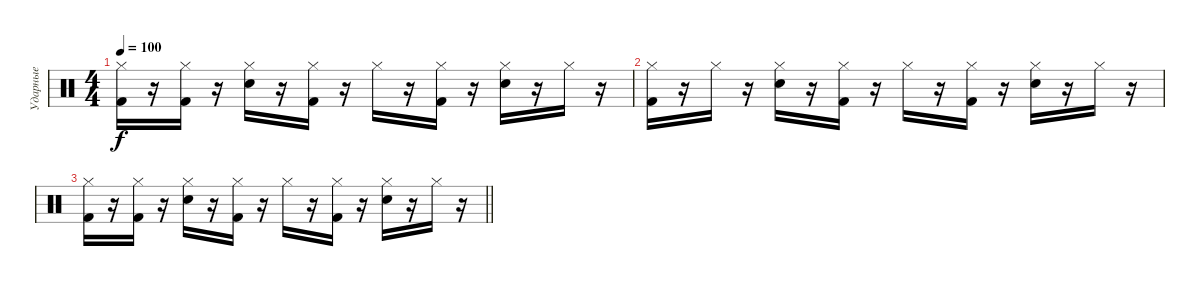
\track ("Ударные" "Ударные") {instrument percussion}
\staff {score}
\articulation defaults
\ts (4 4)
\tempo 100
\clef neutral
\ks c
("Hi-Hat (closed)" "Kick (hit) 2").16{dy f} r.16 ("Hi-Hat (closed)" "Kick (hit) 2").16 r.16 ("Hi-Hat (closed)" "Electric Snare (hit)").16 r.16 ("Hi-Hat (closed)" "Kick (hit) 2").16 r.16 "Hi-Hat (closed)".16 r.16 ("Hi-Hat (closed)" "Kick (hit) 2").16 r.16 ("Hi-Hat (closed)" "Electric Snare (hit)").16 r.16 "Hi-Hat (closed)".16 r.16 |
("Hi-Hat (closed)" "Kick (hit) 2").16 r.16 "Hi-Hat (closed)".16 r.16 ("Hi-Hat (closed)" "Electric Snare (hit)").16 r.16 ("Hi-Hat (closed)" "Kick (hit) 2").16 r.16 "Hi-Hat (closed)".16 r.16 ("Hi-Hat (closed)" "Kick (hit) 2").16 r.16 ("Hi-Hat (closed)" "Electric Snare (hit)").16 r.16 "Hi-Hat (closed)".16 r.16 |
\barLineRight lightlight
("Hi-Hat (closed)" "Kick (hit) 2").16 r.16 ("Hi-Hat (closed)" "Kick (hit) 2").16 r.16 ("Hi-Hat (closed)" "Electric Snare (hit)").16 r.16 ("Hi-Hat (closed)" "Kick (hit) 2").16 r.16 "Hi-Hat (closed)".16 r.16 ("Hi-Hat (closed)" "Kick (hit) 2").16 r.16 ("Hi-Hat (closed)" "Electric Snare (hit)").16 r.16 "Hi-Hat (closed)".16 r.16
